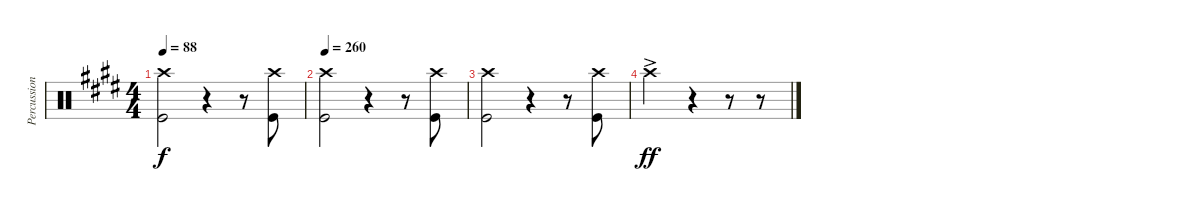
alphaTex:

\track ("Percussion" "Percussion") {instrument percussion}
\staff {score}
\articulation defaults
\ts (4 4)
\tempo 88
\clef neutral
\ks e
("Crash high (hit)" "Kick (hit)").2{dy f} r.4 r.8 ("Crash high (hit)" "Kick (hit)").8 |
\tempo 260
("Crash high (hit)" "Kick (hit)").2 r.4 r.8 ("Crash high (hit)" "Kick (hit)").8 |
("Crash high (hit)" "Kick (hit)").2 r.4 r.8 ("Crash high (hit)" "Kick (hit)").8 |
"Crash high (hit)"{ac}.2{dy ff} r.4 r.8 r.8
